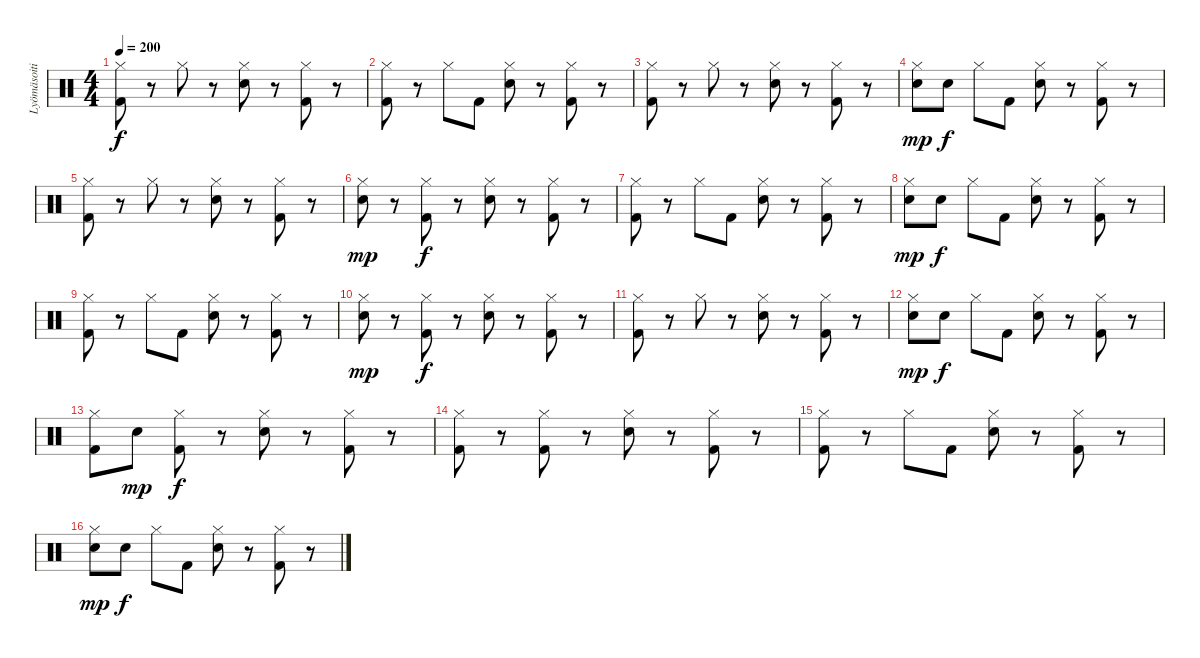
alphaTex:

\track ("Lyömäsoitin" "Lyömäsoiti") {instrument percussion}
\staff {score}
\articulation defaults
\ts (4 4)
\tempo 200
\clef neutral
\ks c
("Kick (hit) 2" "Hi-Hat (closed)").8{dy f} r.8 "Hi-Hat (closed)".8 r.8 ("Snare (hit) 2" "Hi-Hat (closed)").8 r.8 ("Hi-Hat (closed)" "Kick (hit) 2").8 r.8 |
("Kick (hit) 2" "Hi-Hat (closed)").8 r.8 "Hi-Hat (closed)".8 "Kick (hit) 2".8 ("Snare (hit) 2" "Hi-Hat (closed)").8 r.8 ("Kick (hit) 2" "Hi-Hat (closed)").8 r.8 |
("Kick (hit) 2" "Hi-Hat (closed)").8 r.8 "Hi-Hat (closed)".8 r.8 ("Snare (hit) 2" "Hi-Hat (closed)").8 r.8 ("Hi-Hat (closed)" "Kick (hit) 2").8 r.8 |
("Snare (hit) 2" "Hi-Hat (closed)").8{dy mp} "Snare (hit) 2".8{dy f} "Hi-Hat (closed)".8 "Kick (hit) 2".8 ("Snare (hit) 2" "Hi-Hat (closed)").8 r.8 ("Kick (hit) 2" "Hi-Hat (closed)").8 r.8 |
("Kick (hit) 2" "Hi-Hat (closed)").8 r.8 "Hi-Hat (closed)".8 r.8 ("Snare (hit) 2" "Hi-Hat (closed)").8 r.8 ("Hi-Hat (closed)" "Kick (hit) 2").8 r.8 |
("Snare (hit) 2" "Hi-Hat (closed)").8{dy mp} r.8 ("Hi-Hat (closed)" "Kick (hit) 2").8{dy f} r.8 ("Snare (hit) 2" "Hi-Hat (closed)").8 r.8 ("Kick (hit) 2" "Hi-Hat (closed)").8 r.8 |
("Kick (hit) 2" "Hi-Hat (closed)").8 r.8 "Hi-Hat (closed)".8 "Kick (hit) 2".8 ("Snare (hit) 2" "Hi-Hat (closed)").8 r.8 ("Hi-Hat (closed)" "Kick (hit) 2").8 r.8 |
("Snare (hit) 2" "Hi-Hat (closed)").8{dy mp} "Snare (hit) 2".8{dy f} "Hi-Hat (closed)".8 "Kick (hit) 2".8 ("Snare (hit) 2" "Hi-Hat (closed)").8 r.8 ("Kick (hit) 2" "Hi-Hat (closed)").8 r.8 |
("Kick (hit) 2" "Hi-Hat (closed)").8 r.8 "Hi-Hat (closed)".8 "Kick (hit) 2".8 ("Snare (hit) 2" "Hi-Hat (closed)").8 r.8 ("Hi-Hat (closed)" "Kick (hit) 2").8 r.8 |
("Snare (hit) 2" "Hi-Hat (closed)").8{dy mp} r.8 ("Hi-Hat (closed)" "Kick (hit) 2").8{dy f} r.8 ("Snare (hit) 2" "Hi-Hat (closed)").8 r.8 ("Kick (hit) 2" "Hi-Hat (closed)").8 r.8 |
("Kick (hit) 2" "Hi-Hat (closed)").8 r.8 "Hi-Hat (closed)".8 r.8 ("Snare (hit) 2" "Hi-Hat (closed)").8 r.8 ("Hi-Hat (closed)" "Kick (hit) 2").8 r.8 |
("Snare (hit) 2" "Hi-Hat (closed)").8{dy mp} "Snare (hit) 2".8{dy f} "Hi-Hat (closed)".8 "Kick (hit) 2".8 ("Snare (hit) 2" "Hi-Hat (closed)").8 r.8 ("Kick (hit) 2" "Hi-Hat (closed)").8 r.8 |
("Kick (hit) 2" "Hi-Hat (closed)").8 "Snare (hit) 2".8{dy mp} ("Hi-Hat (closed)" "Kick (hit) 2").8{dy f} r.8 ("Snare (hit) 2" "Hi-Hat (closed)").8 r.8 ("Hi-Hat (closed)" "Kick (hit) 2").8 r.8 |
("Hi-Hat (closed)" "Kick (hit) 2").8 r.8 ("Hi-Hat (closed)" "Kick (hit) 2").8 r.8 ("Snare (hit) 2" "Hi-Hat (closed)").8 r.8 ("Kick (hit) 2" "Hi-Hat (closed)").8 r.8 |
("Kick (hit) 2" "Hi-Hat (closed)").8 r.8 "Hi-Hat (closed)".8 "Kick (hit) 2".8 ("Snare (hit) 2" "Hi-Hat (closed)").8 r.8 ("Hi-Hat (closed)" "Kick (hit) 2").8 r.8 |
("Snare (hit) 2" "Hi-Hat (closed)").8{dy mp} "Snare (hit) 2".8{dy f} "Hi-Hat (closed)".8 "Kick (hit) 2".8 ("Snare (hit) 2" "Hi-Hat (closed)").8 r.8 ("Kick (hit) 2" "Hi-Hat (closed)").8 r.8
